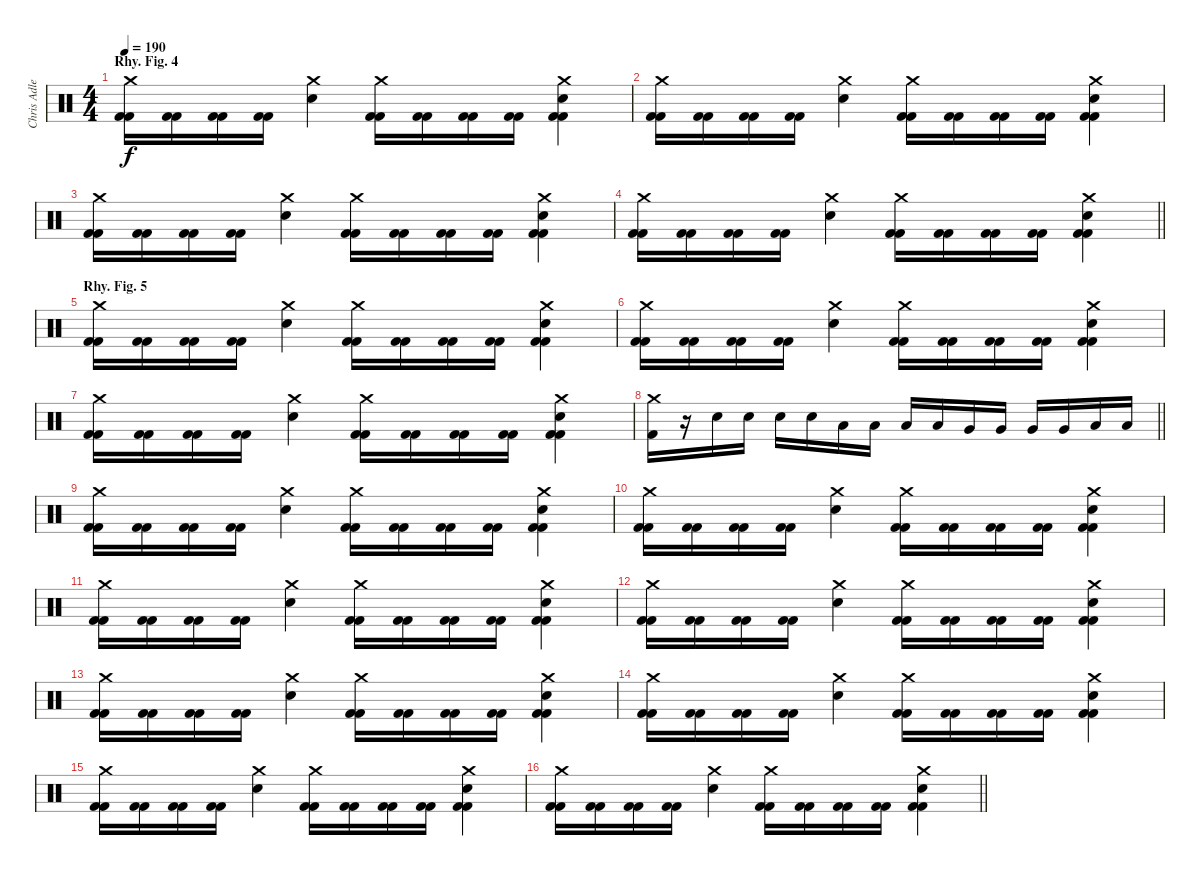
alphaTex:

\track ("Chris Adler" "Chris Adle") {instrument percussion}
\staff {score}
\articulation defaults
\ts (4 4)
\section ("" "Rhy. Fig. 4")
\tempo 190
\clef neutral
\ks c
("Crash medium (hit)" "Kick (hit) 2" "Kick (hit) 2").16{dy f} ("Kick (hit) 2" "Kick (hit) 2").16 ("Kick (hit) 2" "Kick (hit) 2").16 ("Kick (hit) 2" "Kick (hit) 2").16 ("Crash medium (hit)" "Snare (hit) 2").4 ("Crash medium (hit)" "Kick (hit) 2" "Kick (hit) 2").16 ("Kick (hit) 2" "Kick (hit) 2").16 ("Kick (hit) 2" "Kick (hit) 2").16 ("Kick (hit) 2" "Kick (hit) 2").16 ("Crash medium (hit)" "Snare (hit) 2" "Kick (hit) 2" "Kick (hit) 2").4 |
("Crash medium (hit)" "Kick (hit) 2" "Kick (hit) 2").16 ("Kick (hit) 2" "Kick (hit) 2").16 ("Kick (hit) 2" "Kick (hit) 2").16 ("Kick (hit) 2" "Kick (hit) 2").16 ("Crash medium (hit)" "Snare (hit) 2").4 ("Crash medium (hit)" "Kick (hit) 2" "Kick (hit) 2").16 ("Kick (hit) 2" "Kick (hit) 2").16 ("Kick (hit) 2" "Kick (hit) 2").16 ("Kick (hit) 2" "Kick (hit) 2").16 ("Crash medium (hit)" "Snare (hit) 2" "Kick (hit) 2" "Kick (hit) 2").4 |
("Crash medium (hit)" "Kick (hit) 2" "Kick (hit) 2").16 ("Kick (hit) 2" "Kick (hit) 2").16 ("Kick (hit) 2" "Kick (hit) 2").16 ("Kick (hit) 2" "Kick (hit) 2").16 ("Crash medium (hit)" "Snare (hit) 2").4 ("Crash medium (hit)" "Kick (hit) 2" "Kick (hit) 2").16 ("Kick (hit) 2" "Kick (hit) 2").16 ("Kick (hit) 2" "Kick (hit) 2").16 ("Kick (hit) 2" "Kick (hit) 2").16 ("Crash medium (hit)" "Snare (hit) 2" "Kick (hit) 2" "Kick (hit) 2").4 |
\barLineRight lightlight
("Crash medium (hit)" "Kick (hit) 2" "Kick (hit) 2").16 ("Kick (hit) 2" "Kick (hit) 2").16 ("Kick (hit) 2" "Kick (hit) 2").16 ("Kick (hit) 2" "Kick (hit) 2").16 ("Crash medium (hit)" "Snare (hit) 2").4 ("Crash medium (hit)" "Kick (hit) 2" "Kick (hit) 2").16 ("Kick (hit) 2" "Kick (hit) 2").16 ("Kick (hit) 2" "Kick (hit) 2").16 ("Kick (hit) 2" "Kick (hit) 2").16 ("Crash medium (hit)" "Snare (hit) 2" "Kick (hit) 2" "Kick (hit) 2").4 |
\section ("" "Rhy. Fig. 5")
("Crash medium (hit)" "Kick (hit) 2" "Kick (hit) 2").16 ("Kick (hit) 2" "Kick (hit) 2").16 ("Kick (hit) 2" "Kick (hit) 2").16 ("Kick (hit) 2" "Kick (hit) 2").16 ("Crash medium (hit)" "Snare (hit) 2").4 ("Crash medium (hit)" "Kick (hit) 2" "Kick (hit) 2").16 ("Kick (hit) 2" "Kick (hit) 2").16 ("Kick (hit) 2" "Kick (hit) 2").16 ("Kick (hit) 2" "Kick (hit) 2").16 ("Crash medium (hit)" "Snare (hit) 2" "Kick (hit) 2" "Kick (hit) 2").4 |
("Crash medium (hit)" "Kick (hit) 2" "Kick (hit) 2").16 ("Kick (hit) 2" "Kick (hit) 2").16 ("Kick (hit) 2" "Kick (hit) 2").16 ("Kick (hit) 2" "Kick (hit) 2").16 ("Crash medium (hit)" "Snare (hit) 2").4 ("Crash medium (hit)" "Kick (hit) 2" "Kick (hit) 2").16 ("Kick (hit) 2" "Kick (hit) 2").16 ("Kick (hit) 2" "Kick (hit) 2").16 ("Kick (hit) 2" "Kick (hit) 2").16 ("Crash medium (hit)" "Snare (hit) 2" "Kick (hit) 2" "Kick (hit) 2").4 |
("Crash medium (hit)" "Kick (hit) 2" "Kick (hit) 2").16 ("Kick (hit) 2" "Kick (hit) 2").16 ("Kick (hit) 2" "Kick (hit) 2").16 ("Kick (hit) 2" "Kick (hit) 2").16 ("Crash medium (hit)" "Snare (hit) 2").4 ("Crash medium (hit)" "Kick (hit) 2" "Kick (hit) 2").16 ("Kick (hit) 2" "Kick (hit) 2").16 ("Kick (hit) 2" "Kick (hit) 2").16 ("Kick (hit) 2" "Kick (hit) 2").16 ("Crash medium (hit)" "Snare (hit) 2" "Kick (hit) 2" "Kick (hit) 2").4 |
\barLineRight lightlight
("Kick (hit) 2" "Crash medium (hit)").16 r.16 "Snare (hit) 2".16 "Snare (hit) 2".16 "Snare (hit) 2".16 "Snare (hit) 2".16 "Low Tom (hit)".16 "Low Tom (hit)".16 "Low Tom (hit)".16 "Low Tom (hit)".16 "Very Low Tom (hit)".16 "Very Low Tom (hit)".16 "Very Low Tom (hit)".16 "Very Low Tom (hit)".16 "Low Floor Tom (hit)".16 "Low Floor Tom (hit)".16 |
("Crash medium (hit)" "Kick (hit) 2" "Kick (hit) 2").16 ("Kick (hit) 2" "Kick (hit) 2").16 ("Kick (hit) 2" "Kick (hit) 2").16 ("Kick (hit) 2" "Kick (hit) 2").16 ("Crash medium (hit)" "Snare (hit) 2").4 ("Crash medium (hit)" "Kick (hit) 2" "Kick (hit) 2").16 ("Kick (hit) 2" "Kick (hit) 2").16 ("Kick (hit) 2" "Kick (hit) 2").16 ("Kick (hit) 2" "Kick (hit) 2").16 ("Crash medium (hit)" "Snare (hit) 2" "Kick (hit) 2" "Kick (hit) 2").4 |
("Crash medium (hit)" "Kick (hit) 2" "Kick (hit) 2").16 ("Kick (hit) 2" "Kick (hit) 2").16 ("Kick (hit) 2" "Kick (hit) 2").16 ("Kick (hit) 2" "Kick (hit) 2").16 ("Crash medium (hit)" "Snare (hit) 2").4 ("Crash medium (hit)" "Kick (hit) 2" "Kick (hit) 2").16 ("Kick (hit) 2" "Kick (hit) 2").16 ("Kick (hit) 2" "Kick (hit) 2").16 ("Kick (hit) 2" "Kick (hit) 2").16 ("Crash medium (hit)" "Snare (hit) 2" "Kick (hit) 2" "Kick (hit) 2").4 |
("Crash medium (hit)" "Kick (hit) 2" "Kick (hit) 2").16 ("Kick (hit) 2" "Kick (hit) 2").16 ("Kick (hit) 2" "Kick (hit) 2").16 ("Kick (hit) 2" "Kick (hit) 2").16 ("Crash medium (hit)" "Snare (hit) 2").4 ("Crash medium (hit)" "Kick (hit) 2" "Kick (hit) 2").16 ("Kick (hit) 2" "Kick (hit) 2").16 ("Kick (hit) 2" "Kick (hit) 2").16 ("Kick (hit) 2" "Kick (hit) 2").16 ("Crash medium (hit)" "Snare (hit) 2" "Kick (hit) 2" "Kick (hit) 2").4 |
("Crash medium (hit)" "Kick (hit) 2" "Kick (hit) 2").16 ("Kick (hit) 2" "Kick (hit) 2").16 ("Kick (hit) 2" "Kick (hit) 2").16 ("Kick (hit) 2" "Kick (hit) 2").16 ("Crash medium (hit)" "Snare (hit) 2").4 ("Crash medium (hit)" "Kick (hit) 2" "Kick (hit) 2").16 ("Kick (hit) 2" "Kick (hit) 2").16 ("Kick (hit) 2" "Kick (hit) 2").16 ("Kick (hit) 2" "Kick (hit) 2").16 ("Crash medium (hit)" "Snare (hit) 2" "Kick (hit) 2" "Kick (hit) 2").4 |
("Crash medium (hit)" "Kick (hit) 2" "Kick (hit) 2").16 ("Kick (hit) 2" "Kick (hit) 2").16 ("Kick (hit) 2" "Kick (hit) 2").16 ("Kick (hit) 2" "Kick (hit) 2").16 ("Crash medium (hit)" "Snare (hit) 2").4 ("Crash medium (hit)" "Kick (hit) 2" "Kick (hit) 2").16 ("Kick (hit) 2" "Kick (hit) 2").16 ("Kick (hit) 2" "Kick (hit) 2").16 ("Kick (hit) 2" "Kick (hit) 2").16 ("Crash medium (hit)" "Snare (hit) 2" "Kick (hit) 2" "Kick (hit) 2").4 |
("Crash medium (hit)" "Kick (hit) 2" "Kick (hit) 2").16 ("Kick (hit) 2" "Kick (hit) 2").16 ("Kick (hit) 2" "Kick (hit) 2").16 ("Kick (hit) 2" "Kick (hit) 2").16 ("Crash medium (hit)" "Snare (hit) 2").4 ("Crash medium (hit)" "Kick (hit) 2" "Kick (hit) 2").16 ("Kick (hit) 2" "Kick (hit) 2").16 ("Kick (hit) 2" "Kick (hit) 2").16 ("Kick (hit) 2" "Kick (hit) 2").16 ("Crash medium (hit)" "Snare (hit) 2" "Kick (hit) 2" "Kick (hit) 2").4 |
("Crash medium (hit)" "Kick (hit) 2" "Kick (hit) 2").16 ("Kick (hit) 2" "Kick (hit) 2").16 ("Kick (hit) 2" "Kick (hit) 2").16 ("Kick (hit) 2" "Kick (hit) 2").16 ("Crash medium (hit)" "Snare (hit) 2").4 ("Crash medium (hit)" "Kick (hit) 2" "Kick (hit) 2").16 ("Kick (hit) 2" "Kick (hit) 2").16 ("Kick (hit) 2" "Kick (hit) 2").16 ("Kick (hit) 2" "Kick (hit) 2").16 ("Crash medium (hit)" "Snare (hit) 2" "Kick (hit) 2" "Kick (hit) 2").4 |
\barLineRight lightlight
("Crash medium (hit)" "Kick (hit) 2" "Kick (hit) 2").16 ("Kick (hit) 2" "Kick (hit) 2").16 ("Kick (hit) 2" "Kick (hit) 2").16 ("Kick (hit) 2" "Kick (hit) 2").16 ("Crash medium (hit)" "Snare (hit) 2").4 ("Crash medium (hit)" "Kick (hit) 2" "Kick (hit) 2").16 ("Kick (hit) 2" "Kick (hit) 2").16 ("Kick (hit) 2" "Kick (hit) 2").16 ("Kick (hit) 2" "Kick (hit) 2").16 ("Crash medium (hit)" "Snare (hit) 2" "Kick (hit) 2" "Kick (hit) 2").4
